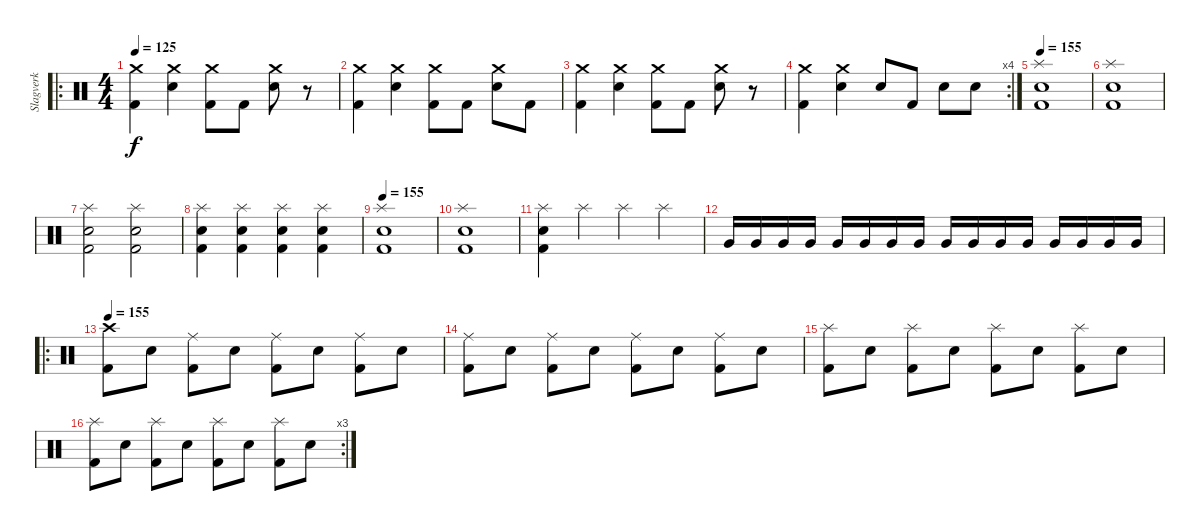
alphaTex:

\track ("Slagverk" "Slagverk") {instrument percussion}
\staff {score}
\articulation defaults
\ro
\ts (4 4)
\tempo 125
\clef neutral
\ks c
("Crash medium (hit)" "Kick (hit) 2").4{dy f} ("Crash medium (hit)" "Electric Snare (hit)").4 ("Crash medium (hit)" "Kick (hit) 2").8 "Kick (hit) 2".8 ("Crash medium (hit)" "Electric Snare (hit)").8 r.8 |
("Crash medium (hit)" "Kick (hit) 2").4 ("Crash medium (hit)" "Electric Snare (hit)").4 ("Crash medium (hit)" "Kick (hit) 2").8 "Kick (hit) 2".8 ("Crash medium (hit)" "Electric Snare (hit)").8 "Kick (hit) 2".8 |
("Crash medium (hit)" "Kick (hit) 2").4 ("Crash medium (hit)" "Electric Snare (hit)").4 ("Crash medium (hit)" "Kick (hit) 2").8 "Kick (hit) 2".8 ("Crash medium (hit)" "Electric Snare (hit)").8 r.8 |
\rc 4
("Crash medium (hit)" "Kick (hit) 2").4 ("Crash medium (hit)" "Electric Snare (hit)").4 "Electric Snare (hit)".8 "Kick (hit) 2".8 "Electric Snare (hit)".8 "Electric Snare (hit)".8 |
\tempo 155
("Splash (hit)" "Electric Snare (hit)" "Kick (hit) 2").1 |
("Splash (hit)" "Electric Snare (hit)" "Kick (hit) 2").1 |
("Splash (hit)" "Electric Snare (hit)" "Kick (hit) 2").2 ("Splash (hit)" "Electric Snare (hit)" "Kick (hit) 2").2 |
("Splash (hit)" "Electric Snare (hit)" "Kick (hit) 2").4 ("Splash (hit)" "Electric Snare (hit)" "Kick (hit) 2").4 ("Splash (hit)" "Electric Snare (hit)" "Kick (hit) 2").4 ("Splash (hit)" "Electric Snare (hit)" "Kick (hit) 2").4 |
\tempo 155
("Splash (hit)" "Electric Snare (hit)" "Kick (hit) 2").1 |
("Splash (hit)" "Electric Snare (hit)" "Kick (hit) 2").1 |
("Splash (hit)" "Electric Snare (hit)" "Kick (hit) 2").4 "Splash (hit)".4 "Splash (hit)".4 "Splash (hit)".4 |
"Very Low Tom (hit)".16 "Very Low Tom (hit)".16 "Very Low Tom (hit)".16 "Very Low Tom (hit)".16 "Very Low Tom (hit)".16 "Very Low Tom (hit)".16 "Very Low Tom (hit)".16 "Very Low Tom (hit)".16 "Very Low Tom (hit)".16 "Very Low Tom (hit)".16 "Very Low Tom (hit)".16 "Very Low Tom (hit)".16 "Very Low Tom (hit)".16 "Very Low Tom (hit)".16 "Very Low Tom (hit)".16 "Very Low Tom (hit)".16 |
\ro
\tempo 155
("Crash high (hit)" "Kick (hit) 2").8 "Electric Snare (hit)".8 ("Ride (middle)" "Kick (hit) 2").8 "Electric Snare (hit)".8 ("Ride (middle)" "Kick (hit) 2").8 "Electric Snare (hit)".8 ("Ride (middle)" "Kick (hit) 2").8 "Electric Snare (hit)".8 |
("Ride (middle)" "Kick (hit) 2").8 "Electric Snare (hit)".8 ("Ride (middle)" "Kick (hit) 2").8 "Electric Snare (hit)".8 ("Ride (middle)" "Kick (hit) 2").8 "Electric Snare (hit)".8 ("Ride (middle)" "Kick (hit) 2").8 "Electric Snare (hit)".8 |
("Splash (hit)" "Kick (hit) 2").8 "Electric Snare (hit)".8 ("Splash (hit)" "Kick (hit) 2").8 "Electric Snare (hit)".8 ("Splash (hit)" "Kick (hit) 2").8 "Electric Snare (hit)".8 ("Splash (hit)" "Kick (hit) 2").8 "Electric Snare (hit)".8 |
\rc 3
("Splash (hit)" "Kick (hit) 2").8 "Electric Snare (hit)".8 ("Splash (hit)" "Kick (hit) 2").8 "Electric Snare (hit)".8 ("Splash (hit)" "Kick (hit) 2").8 "Electric Snare (hit)".8 ("Splash (hit)" "Kick (hit) 2").8 "Electric Snare (hit)".8
